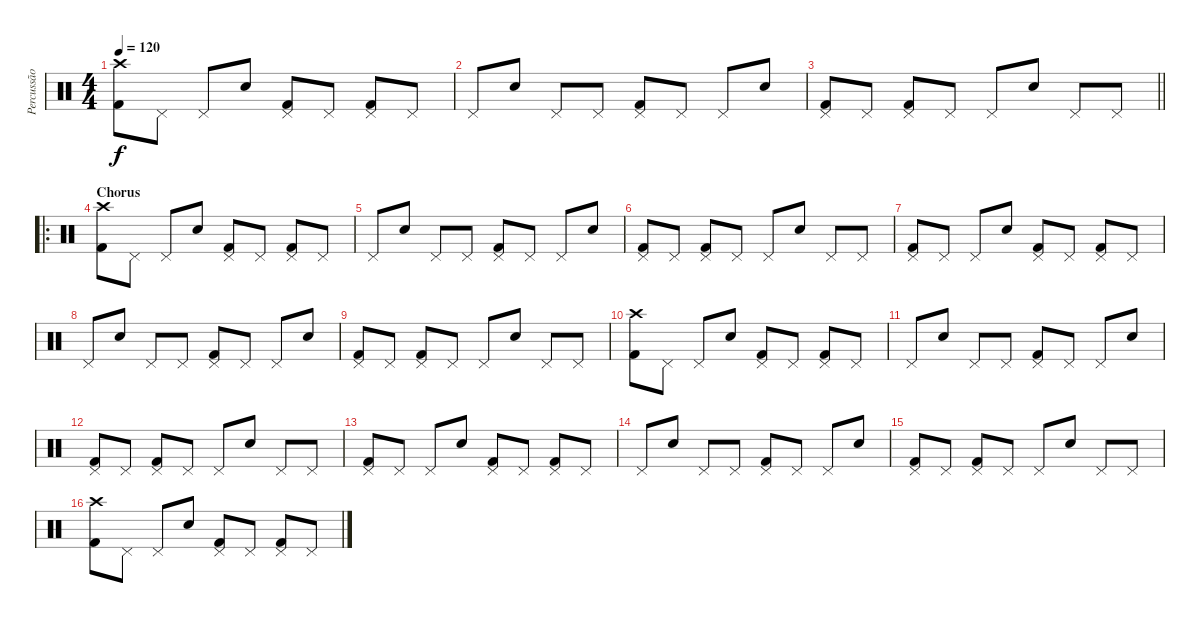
\track ("Percussão" "Percussão") {instrument percussion}
\staff {score}
\articulation defaults
\ts (4 4)
\tempo 120
\clef neutral
\ks c
("Crash high (hit)" "Kick (hit) 2").8{dy f} "Pedal Hi-Hat (hit)".8 "Pedal Hi-Hat (hit)".8 "Snare (hit) 2".8 ("Pedal Hi-Hat (hit)" "Kick (hit) 2").8 "Pedal Hi-Hat (hit)".8 ("Pedal Hi-Hat (hit)" "Kick (hit) 2").8 "Pedal Hi-Hat (hit)".8 |
"Pedal Hi-Hat (hit)".8 "Snare (hit) 2".8 "Pedal Hi-Hat (hit)".8 "Pedal Hi-Hat (hit)".8 ("Pedal Hi-Hat (hit)" "Kick (hit) 2").8 "Pedal Hi-Hat (hit)".8 "Pedal Hi-Hat (hit)".8 "Snare (hit) 2".8 |
\barLineRight lightlight
("Pedal Hi-Hat (hit)" "Kick (hit) 2").8 "Pedal Hi-Hat (hit)".8 ("Pedal Hi-Hat (hit)" "Kick (hit) 2").8 "Pedal Hi-Hat (hit)".8 "Pedal Hi-Hat (hit)".8 "Snare (hit) 2".8 "Pedal Hi-Hat (hit)".8 "Pedal Hi-Hat (hit)".8 |
\ro
\section ("" "Chorus")
("Crash high (hit)" "Kick (hit) 2").8 "Pedal Hi-Hat (hit)".8 "Pedal Hi-Hat (hit)".8 "Snare (hit) 2".8 ("Pedal Hi-Hat (hit)" "Kick (hit) 2").8 "Pedal Hi-Hat (hit)".8 ("Pedal Hi-Hat (hit)" "Kick (hit) 2").8 "Pedal Hi-Hat (hit)".8 |
"Pedal Hi-Hat (hit)".8 "Snare (hit) 2".8 "Pedal Hi-Hat (hit)".8 "Pedal Hi-Hat (hit)".8 ("Pedal Hi-Hat (hit)" "Kick (hit) 2").8 "Pedal Hi-Hat (hit)".8 "Pedal Hi-Hat (hit)".8 "Snare (hit) 2".8 |
("Pedal Hi-Hat (hit)" "Kick (hit) 2").8 "Pedal Hi-Hat (hit)".8 ("Pedal Hi-Hat (hit)" "Kick (hit) 2").8 "Pedal Hi-Hat (hit)".8 "Pedal Hi-Hat (hit)".8 "Snare (hit) 2".8 "Pedal Hi-Hat (hit)".8 "Pedal Hi-Hat (hit)".8 |
("Pedal Hi-Hat (hit)" "Kick (hit) 2").8 "Pedal Hi-Hat (hit)".8 "Pedal Hi-Hat (hit)".8 "Snare (hit) 2".8 ("Pedal Hi-Hat (hit)" "Kick (hit) 2").8 "Pedal Hi-Hat (hit)".8 ("Pedal Hi-Hat (hit)" "Kick (hit) 2").8 "Pedal Hi-Hat (hit)".8 |
"Pedal Hi-Hat (hit)".8 "Snare (hit) 2".8 "Pedal Hi-Hat (hit)".8 "Pedal Hi-Hat (hit)".8 ("Pedal Hi-Hat (hit)" "Kick (hit) 2").8 "Pedal Hi-Hat (hit)".8 "Pedal Hi-Hat (hit)".8 "Snare (hit) 2".8 |
("Pedal Hi-Hat (hit)" "Kick (hit) 2").8 "Pedal Hi-Hat (hit)".8 ("Pedal Hi-Hat (hit)" "Kick (hit) 2").8 "Pedal Hi-Hat (hit)".8 "Pedal Hi-Hat (hit)".8 "Snare (hit) 2".8 "Pedal Hi-Hat (hit)".8 "Pedal Hi-Hat (hit)".8 |
("Crash high (hit)" "Kick (hit) 2").8 "Pedal Hi-Hat (hit)".8 "Pedal Hi-Hat (hit)".8 "Snare (hit) 2".8 ("Pedal Hi-Hat (hit)" "Kick (hit) 2").8 "Pedal Hi-Hat (hit)".8 ("Pedal Hi-Hat (hit)" "Kick (hit) 2").8 "Pedal Hi-Hat (hit)".8 |
"Pedal Hi-Hat (hit)".8 "Snare (hit) 2".8 "Pedal Hi-Hat (hit)".8 "Pedal Hi-Hat (hit)".8 ("Pedal Hi-Hat (hit)" "Kick (hit) 2").8 "Pedal Hi-Hat (hit)".8 "Pedal Hi-Hat (hit)".8 "Snare (hit) 2".8 |
("Pedal Hi-Hat (hit)" "Kick (hit) 2").8 "Pedal Hi-Hat (hit)".8 ("Pedal Hi-Hat (hit)" "Kick (hit) 2").8 "Pedal Hi-Hat (hit)".8 "Pedal Hi-Hat (hit)".8 "Snare (hit) 2".8 "Pedal Hi-Hat (hit)".8 "Pedal Hi-Hat (hit)".8 |
("Pedal Hi-Hat (hit)" "Kick (hit) 2").8 "Pedal Hi-Hat (hit)".8 "Pedal Hi-Hat (hit)".8 "Snare (hit) 2".8 ("Pedal Hi-Hat (hit)" "Kick (hit) 2").8 "Pedal Hi-Hat (hit)".8 ("Pedal Hi-Hat (hit)" "Kick (hit) 2").8 "Pedal Hi-Hat (hit)".8 |
"Pedal Hi-Hat (hit)".8 "Snare (hit) 2".8 "Pedal Hi-Hat (hit)".8 "Pedal Hi-Hat (hit)".8 ("Pedal Hi-Hat (hit)" "Kick (hit) 2").8 "Pedal Hi-Hat (hit)".8 "Pedal Hi-Hat (hit)".8 "Snare (hit) 2".8 |
("Pedal Hi-Hat (hit)" "Kick (hit) 2").8 "Pedal Hi-Hat (hit)".8 ("Pedal Hi-Hat (hit)" "Kick (hit) 2").8 "Pedal Hi-Hat (hit)".8 "Pedal Hi-Hat (hit)".8 "Snare (hit) 2".8 "Pedal Hi-Hat (hit)".8 "Pedal Hi-Hat (hit)".8 |
("Crash high (hit)" "Kick (hit) 2").8 "Pedal Hi-Hat (hit)".8 "Pedal Hi-Hat (hit)".8 "Snare (hit) 2".8 ("Pedal Hi-Hat (hit)" "Kick (hit) 2").8 "Pedal Hi-Hat (hit)".8 ("Pedal Hi-Hat (hit)" "Kick (hit) 2").8 "Pedal Hi-Hat (hit)".8
